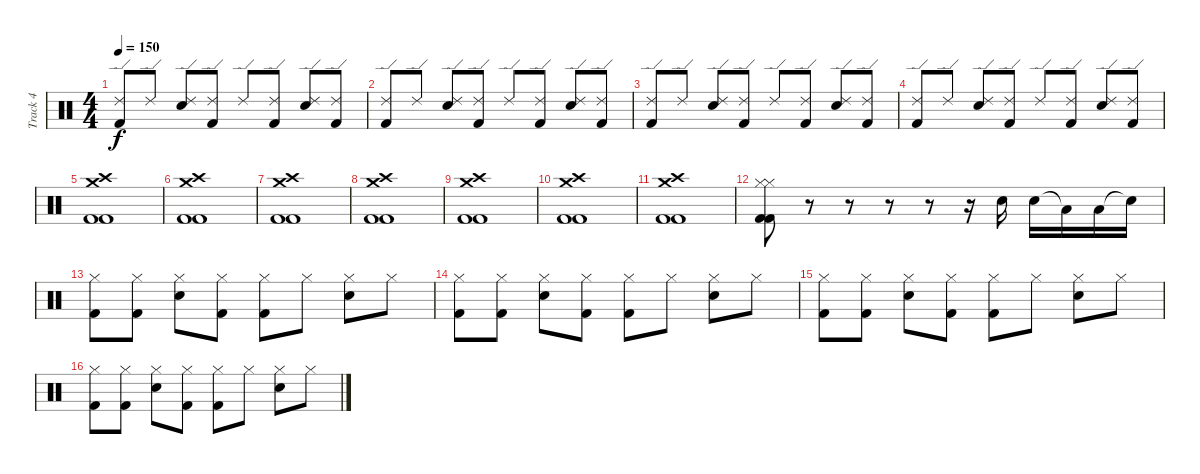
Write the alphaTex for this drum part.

\track ("Track 4" "Track 4") {instrument percussion}
\staff {score}
\articulation defaults
\ts (4 4)
\tempo 150
\clef neutral
\ks c
("Ride (edge) 2" "Kick (hit) 2").8{dy f} "Ride (edge) 2".8 ("Ride (edge) 2" "Snare (hit) 2").8 ("Ride (edge) 2" "Kick (hit) 2").8 "Ride (edge) 2".8 ("Ride (edge) 2" "Kick (hit) 2").8 ("Ride (edge) 2" "Snare (hit) 2").8 ("Ride (edge) 2" "Kick (hit) 2").8 |
("Ride (edge) 2" "Kick (hit) 2").8 "Ride (edge) 2".8 ("Ride (edge) 2" "Snare (hit) 2").8 ("Ride (edge) 2" "Kick (hit) 2").8 "Ride (edge) 2".8 ("Ride (edge) 2" "Kick (hit) 2").8 ("Ride (edge) 2" "Snare (hit) 2").8 ("Ride (edge) 2" "Kick (hit) 2").8 |
("Ride (edge) 2" "Kick (hit) 2").8 "Ride (edge) 2".8 ("Ride (edge) 2" "Snare (hit) 2").8 ("Ride (edge) 2" "Kick (hit) 2").8 "Ride (edge) 2".8 ("Ride (edge) 2" "Kick (hit) 2").8 ("Ride (edge) 2" "Snare (hit) 2").8 ("Ride (edge) 2" "Kick (hit) 2").8 |
("Ride (edge) 2" "Kick (hit) 2").8 "Ride (edge) 2".8 ("Ride (edge) 2" "Snare (hit) 2").8 ("Ride (edge) 2" "Kick (hit) 2").8 "Ride (edge) 2".8 ("Ride (edge) 2" "Kick (hit) 2").8 ("Ride (edge) 2" "Snare (hit) 2").8 ("Ride (edge) 2" "Kick (hit) 2").8 |
("Crash high (hit)" "Crash medium (hit)" "Kick (hit) 2" "Kick (hit) 2").1 |
("Crash high (hit)" "Crash medium (hit)" "Kick (hit) 2" "Kick (hit) 2").1 |
("Crash high (hit)" "Crash medium (hit)" "Kick (hit) 2" "Kick (hit) 2").1 |
("Crash high (hit)" "Crash medium (hit)" "Kick (hit) 2" "Kick (hit) 2").1 |
("Crash high (hit)" "Crash medium (hit)" "Kick (hit) 2" "Kick (hit) 2").1 |
("Crash high (hit)" "Crash medium (hit)" "Kick (hit) 2" "Kick (hit) 2").1 |
("Crash high (hit)" "Crash medium (hit)" "Kick (hit) 2" "Kick (hit) 2").1 |
("Hi-Hat (closed)" "Hi-Hat (closed)" "Kick (hit) 2" "Kick (hit) 2").8 r.8 r.8 r.8 r.8 r.16 "Snare (hit) 2".16 "Snare (hit) 2".16 "Low Tom (hit)"{t}.16 "Low Tom (hit)".16 "Snare (hit)"{t}.16 |
("Hi-Hat (closed)" "Kick (hit) 2").8 ("Hi-Hat (closed)" "Kick (hit) 2").8 ("Hi-Hat (closed)" "Snare (hit) 2").8 ("Hi-Hat (closed)" "Kick (hit) 2").8 ("Hi-Hat (closed)" "Kick (hit) 2").8 "Hi-Hat (closed)".8 ("Hi-Hat (closed)" "Snare (hit) 2").8 "Hi-Hat (closed)".8 |
("Hi-Hat (closed)" "Kick (hit) 2").8 ("Hi-Hat (closed)" "Kick (hit) 2").8 ("Hi-Hat (closed)" "Snare (hit) 2").8 ("Hi-Hat (closed)" "Kick (hit) 2").8 ("Hi-Hat (closed)" "Kick (hit) 2").8 "Hi-Hat (closed)".8 ("Hi-Hat (closed)" "Snare (hit) 2").8 "Hi-Hat (closed)".8 |
("Hi-Hat (closed)" "Kick (hit) 2").8 ("Hi-Hat (closed)" "Kick (hit) 2").8 ("Hi-Hat (closed)" "Snare (hit) 2").8 ("Hi-Hat (closed)" "Kick (hit) 2").8 ("Hi-Hat (closed)" "Kick (hit) 2").8 "Hi-Hat (closed)".8 ("Hi-Hat (closed)" "Snare (hit) 2").8 "Hi-Hat (closed)".8 |
("Hi-Hat (closed)" "Kick (hit) 2").8 ("Hi-Hat (closed)" "Kick (hit) 2").8 ("Hi-Hat (closed)" "Snare (hit) 2").8 ("Hi-Hat (closed)" "Kick (hit) 2").8 ("Hi-Hat (closed)" "Kick (hit) 2").8 "Hi-Hat (closed)".8 ("Hi-Hat (closed)" "Snare (hit) 2").8 "Hi-Hat (closed)".8
